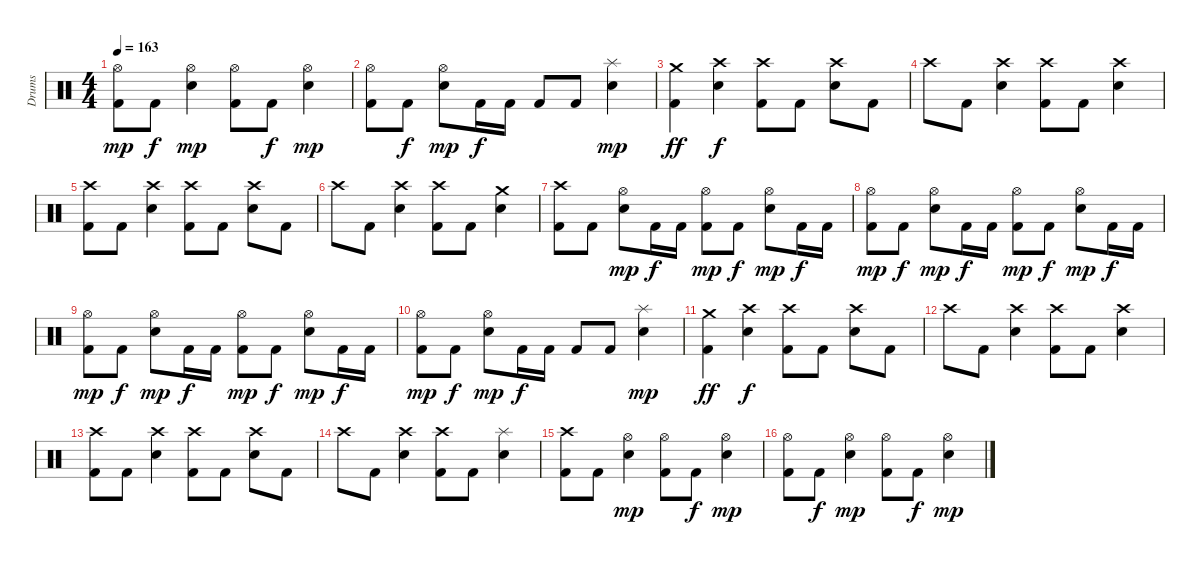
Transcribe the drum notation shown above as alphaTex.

\track ("Drums" "Drums") {instrument percussion}
\staff {score}
\articulation defaults
\ts (4 4)
\tempo 163
\clef neutral
\ks c
("Hi-Hat (open)" "Kick (hit) 2").8{dy mp} "Kick (hit) 2".8{dy f} ("Hi-Hat (open)" "Snare (hit) 2").4{dy mp} ("Hi-Hat (open)" "Kick (hit) 2").8 "Kick (hit) 2".8{dy f} ("Hi-Hat (open)" "Snare (hit) 2").4{dy mp} |
("Hi-Hat (open)" "Kick (hit) 2").8 "Kick (hit) 2".8{dy f} ("Hi-Hat (open)" "Snare (hit) 2").8{dy mp} "Kick (hit) 2".16{dy f} "Kick (hit) 2".16 "Kick (hit) 2".8 "Kick (hit) 2".8 ("Splash (hit)" "Snare (hit) 2").4{dy mp} |
("Crash medium (hit)" "Kick (hit) 2").4{dy ff} ("Crash high (hit)" "Snare (hit) 2").4{dy f} ("Crash high (hit)" "Kick (hit) 2").8 "Kick (hit) 2".8 ("Crash high (hit)" "Snare (hit) 2").8 "Kick (hit) 2".8 |
"Crash high (hit)".8 "Kick (hit) 2".8 ("Crash high (hit)" "Snare (hit) 2").4 ("Crash high (hit)" "Kick (hit) 2").8 "Kick (hit) 2".8 ("Crash high (hit)" "Snare (hit) 2").4 |
("Crash high (hit)" "Kick (hit) 2").8 "Kick (hit) 2".8 ("Crash high (hit)" "Snare (hit) 2").4 ("Crash high (hit)" "Kick (hit) 2").8 "Kick (hit) 2".8 ("Crash high (hit)" "Snare (hit) 2").8 "Kick (hit) 2".8 |
"Crash high (hit)".8 "Kick (hit) 2".8 ("Crash high (hit)" "Snare (hit) 2").4 ("Crash high (hit)" "Kick (hit) 2").8 "Kick (hit) 2".8 ("Crash medium (hit)" "Snare (hit) 2").4 |
("Crash high (hit)" "Kick (hit) 2").8 "Kick (hit) 2".8 ("Hi-Hat (open)" "Snare (hit) 2").8{dy mp} "Kick (hit) 2".16{dy f} "Kick (hit) 2".16 ("Hi-Hat (open)" "Kick (hit) 2").8{dy mp} "Kick (hit) 2".8{dy f} ("Hi-Hat (open)" "Snare (hit) 2").8{dy mp} "Kick (hit) 2".16{dy f} "Kick (hit) 2".16 |
("Hi-Hat (open)" "Kick (hit) 2").8{dy mp} "Kick (hit) 2".8{dy f} ("Hi-Hat (open)" "Snare (hit) 2").8{dy mp} "Kick (hit) 2".16{dy f} "Kick (hit) 2".16 ("Hi-Hat (open)" "Kick (hit) 2").8{dy mp} "Kick (hit) 2".8{dy f} ("Hi-Hat (open)" "Snare (hit) 2").8{dy mp} "Kick (hit) 2".16{dy f} "Kick (hit) 2".16 |
("Hi-Hat (open)" "Kick (hit) 2").8{dy mp} "Kick (hit) 2".8{dy f} ("Hi-Hat (open)" "Snare (hit) 2").8{dy mp} "Kick (hit) 2".16{dy f} "Kick (hit) 2".16 ("Hi-Hat (open)" "Kick (hit) 2").8{dy mp} "Kick (hit) 2".8{dy f} ("Hi-Hat (open)" "Snare (hit) 2").8{dy mp} "Kick (hit) 2".16{dy f} "Kick (hit) 2".16 |
("Hi-Hat (open)" "Kick (hit) 2").8{dy mp} "Kick (hit) 2".8{dy f} ("Hi-Hat (open)" "Snare (hit) 2").8{dy mp} "Kick (hit) 2".16{dy f} "Kick (hit) 2".16 "Kick (hit) 2".8 "Kick (hit) 2".8 ("Splash (hit)" "Snare (hit) 2").4{dy mp} |
("Crash medium (hit)" "Kick (hit) 2").4{dy ff} ("Crash high (hit)" "Snare (hit) 2").4{dy f} ("Crash high (hit)" "Kick (hit) 2").8 "Kick (hit) 2".8 ("Crash high (hit)" "Snare (hit) 2").8 "Kick (hit) 2".8 |
"Crash high (hit)".8 "Kick (hit) 2".8 ("Crash high (hit)" "Snare (hit) 2").4 ("Crash high (hit)" "Kick (hit) 2").8 "Kick (hit) 2".8 ("Crash high (hit)" "Snare (hit) 2").4 |
("Crash high (hit)" "Kick (hit) 2").8 "Kick (hit) 2".8 ("Crash high (hit)" "Snare (hit) 2").4 ("Crash high (hit)" "Kick (hit) 2").8 "Kick (hit) 2".8 ("Crash high (hit)" "Snare (hit) 2").8 "Kick (hit) 2".8 |
"Crash high (hit)".8 "Kick (hit) 2".8 ("Crash high (hit)" "Snare (hit) 2").4 ("Crash high (hit)" "Kick (hit) 2").8 "Kick (hit) 2".8 ("Splash (hit)" "Snare (hit) 2").4 |
("Crash high (hit)" "Kick (hit) 2").8 "Kick (hit) 2".8 ("Hi-Hat (open)" "Snare (hit) 2").4{dy mp} ("Hi-Hat (open)" "Kick (hit) 2").8 "Kick (hit) 2".8{dy f} ("Hi-Hat (open)" "Snare (hit) 2").4{dy mp} |
("Hi-Hat (open)" "Kick (hit) 2").8 "Kick (hit) 2".8{dy f} ("Hi-Hat (open)" "Snare (hit) 2").4{dy mp} ("Hi-Hat (open)" "Kick (hit) 2").8 "Kick (hit) 2".8{dy f} ("Hi-Hat (open)" "Snare (hit) 2").4{dy mp}
